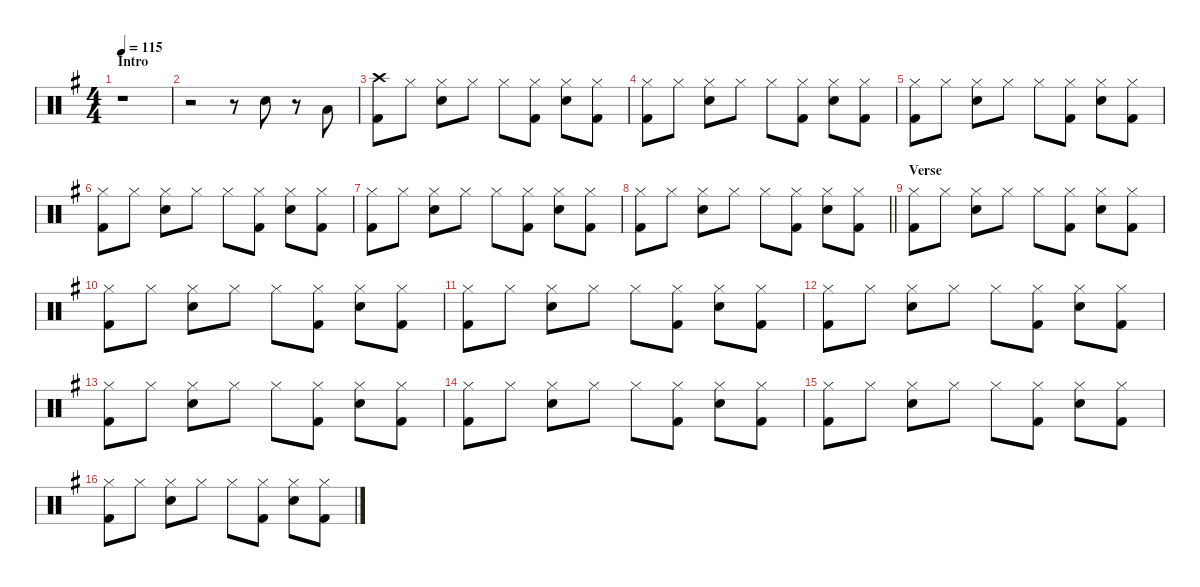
\defaultSystemsLayout 8
\hideDynamics
\bracketExtendMode nobrackets
\singleTrackTrackNamePolicy hidden
\multiTrackTrackNamePolicy hidden
\otherSystemsTrackNameOrientation horizontal
\track ("Drums" "drm.") {defaultSystemsLayout 4 instrument percussion}
\staff {score}
\articulation defaults
\ts (4 4)
\beaming (8 2 2 2 2)
\section ("" "Intro")
\tempo 115
\clef neutral
\ks g
r.1{dy f beam Down} |
r.2{beam Down} r.8{beam Down} "Snare (hit) 2"{acc forcenatural}.8{beam Down} r.8{beam Down} "Low Tom (hit)"{acc forcenatural}.8{beam Up} |
("Crash high (hit)"{acc forcenatural} "Kick (hit) 2"{acc forcenatural}).8{beam Down} "Hi-Hat (closed)"{acc forcenatural}.8{beam Down} ("Hi-Hat (closed)"{acc forcenatural} "Snare (hit) 2"{acc forcenatural}).8{beam Down} "Hi-Hat (closed)"{acc forcenatural}.8{beam Down} "Hi-Hat (closed)"{acc forcenatural}.8{beam Down} ("Hi-Hat (closed)"{acc forcenatural} "Kick (hit) 2"{acc forcenatural}).8{beam Down} ("Hi-Hat (closed)"{acc forcenatural} "Snare (hit) 2"{acc forcenatural}).8{beam Down} ("Hi-Hat (closed)"{acc forcenatural} "Kick (hit) 2"{acc forcenatural}).8{beam Down} |
("Hi-Hat (closed)"{acc forcenatural} "Kick (hit) 2"{acc forcenatural}).8{beam Down} "Hi-Hat (closed)"{acc forcenatural}.8{beam Down} ("Hi-Hat (closed)"{acc forcenatural} "Snare (hit) 2"{acc forcenatural}).8{beam Down} "Hi-Hat (closed)"{acc forcenatural}.8{beam Down} "Hi-Hat (closed)"{acc forcenatural}.8{beam Down} ("Hi-Hat (closed)"{acc forcenatural} "Kick (hit) 2"{acc forcenatural}).8{beam Down} ("Hi-Hat (closed)"{acc forcenatural} "Snare (hit) 2"{acc forcenatural}).8{beam Down} ("Hi-Hat (closed)"{acc forcenatural} "Kick (hit) 2"{acc forcenatural}).8{beam Down} |
("Hi-Hat (closed)"{acc forcenatural} "Kick (hit) 2"{acc forcenatural}).8{beam Down} "Hi-Hat (closed)"{acc forcenatural}.8{beam Down} ("Hi-Hat (closed)"{acc forcenatural} "Snare (hit) 2"{acc forcenatural}).8{beam Down} "Hi-Hat (closed)"{acc forcenatural}.8{beam Down} "Hi-Hat (closed)"{acc forcenatural}.8{beam Down} ("Hi-Hat (closed)"{acc forcenatural} "Kick (hit) 2"{acc forcenatural}).8{beam Down} ("Hi-Hat (closed)"{acc forcenatural} "Snare (hit) 2"{acc forcenatural}).8{beam Down} ("Hi-Hat (closed)"{acc forcenatural} "Kick (hit) 2"{acc forcenatural}).8{beam Down} |
("Hi-Hat (closed)"{acc forcenatural} "Kick (hit) 2"{acc forcenatural}).8{beam Down} "Hi-Hat (closed)"{acc forcenatural}.8{beam Down} ("Hi-Hat (closed)"{acc forcenatural} "Snare (hit) 2"{acc forcenatural}).8{beam Down} "Hi-Hat (closed)"{acc forcenatural}.8{beam Down} "Hi-Hat (closed)"{acc forcenatural}.8{beam Down} ("Hi-Hat (closed)"{acc forcenatural} "Kick (hit) 2"{acc forcenatural}).8{beam Down} ("Hi-Hat (closed)"{acc forcenatural} "Snare (hit) 2"{acc forcenatural}).8{beam Down} ("Hi-Hat (closed)"{acc forcenatural} "Kick (hit) 2"{acc forcenatural}).8{beam Down} |
("Hi-Hat (closed)"{acc forcenatural} "Kick (hit) 2"{acc forcenatural}).8{beam Down} "Hi-Hat (closed)"{acc forcenatural}.8{beam Down} ("Hi-Hat (closed)"{acc forcenatural} "Snare (hit) 2"{acc forcenatural}).8{beam Down} "Hi-Hat (closed)"{acc forcenatural}.8{beam Down} "Hi-Hat (closed)"{acc forcenatural}.8{beam Down} ("Hi-Hat (closed)"{acc forcenatural} "Kick (hit) 2"{acc forcenatural}).8{beam Down} ("Hi-Hat (closed)"{acc forcenatural} "Snare (hit) 2"{acc forcenatural}).8{beam Down} ("Hi-Hat (closed)"{acc forcenatural} "Kick (hit) 2"{acc forcenatural}).8{beam Down} |
\barLineRight lightlight
("Hi-Hat (closed)"{acc forcenatural} "Kick (hit) 2"{acc forcenatural}).8{beam Down} "Hi-Hat (closed)"{acc forcenatural}.8{beam Down} ("Hi-Hat (closed)"{acc forcenatural} "Snare (hit) 2"{acc forcenatural}).8{beam Down} "Hi-Hat (closed)"{acc forcenatural}.8{beam Down} "Hi-Hat (closed)"{acc forcenatural}.8{beam Down} ("Hi-Hat (closed)"{acc forcenatural} "Kick (hit) 2"{acc forcenatural}).8{beam Down} ("Hi-Hat (closed)"{acc forcenatural} "Snare (hit) 2"{acc forcenatural}).8{beam Down} ("Hi-Hat (closed)"{acc forcenatural} "Kick (hit) 2"{acc forcenatural}).8{beam Down} |
\section ("" "Verse")
("Hi-Hat (closed)"{acc forcenatural} "Kick (hit) 2"{acc forcenatural}).8{beam Down} "Hi-Hat (closed)"{acc forcenatural}.8{beam Down} ("Hi-Hat (closed)"{acc forcenatural} "Snare (hit) 2"{acc forcenatural}).8{beam Down} "Hi-Hat (closed)"{acc forcenatural}.8{beam Down} "Hi-Hat (closed)"{acc forcenatural}.8{beam Down} ("Hi-Hat (closed)"{acc forcenatural} "Kick (hit) 2"{acc forcenatural}).8{beam Down} ("Hi-Hat (closed)"{acc forcenatural} "Snare (hit) 2"{acc forcenatural}).8{beam Down} ("Hi-Hat (closed)"{acc forcenatural} "Kick (hit) 2"{acc forcenatural}).8{beam Down} |
("Hi-Hat (closed)"{acc forcenatural} "Kick (hit) 2"{acc forcenatural}).8{beam Down} "Hi-Hat (closed)"{acc forcenatural}.8{beam Down} ("Hi-Hat (closed)"{acc forcenatural} "Snare (hit) 2"{acc forcenatural}).8{beam Down} "Hi-Hat (closed)"{acc forcenatural}.8{beam Down} "Hi-Hat (closed)"{acc forcenatural}.8{beam Down} ("Hi-Hat (closed)"{acc forcenatural} "Kick (hit) 2"{acc forcenatural}).8{beam Down} ("Hi-Hat (closed)"{acc forcenatural} "Snare (hit) 2"{acc forcenatural}).8{beam Down} ("Hi-Hat (closed)"{acc forcenatural} "Kick (hit) 2"{acc forcenatural}).8{beam Down} |
("Hi-Hat (closed)"{acc forcenatural} "Kick (hit) 2"{acc forcenatural}).8{beam Down} "Hi-Hat (closed)"{acc forcenatural}.8{beam Down} ("Hi-Hat (closed)"{acc forcenatural} "Snare (hit) 2"{acc forcenatural}).8{beam Down} "Hi-Hat (closed)"{acc forcenatural}.8{beam Down} "Hi-Hat (closed)"{acc forcenatural}.8{beam Down} ("Hi-Hat (closed)"{acc forcenatural} "Kick (hit) 2"{acc forcenatural}).8{beam Down} ("Hi-Hat (closed)"{acc forcenatural} "Snare (hit) 2"{acc forcenatural}).8{beam Down} ("Hi-Hat (closed)"{acc forcenatural} "Kick (hit) 2"{acc forcenatural}).8{beam Down} |
("Hi-Hat (closed)"{acc forcenatural} "Kick (hit) 2"{acc forcenatural}).8{beam Down} "Hi-Hat (closed)"{acc forcenatural}.8{beam Down} ("Hi-Hat (closed)"{acc forcenatural} "Snare (hit) 2"{acc forcenatural}).8{beam Down} "Hi-Hat (closed)"{acc forcenatural}.8{beam Down} "Hi-Hat (closed)"{acc forcenatural}.8{beam Down} ("Hi-Hat (closed)"{acc forcenatural} "Kick (hit) 2"{acc forcenatural}).8{beam Down} ("Hi-Hat (closed)"{acc forcenatural} "Snare (hit) 2"{acc forcenatural}).8{beam Down} ("Hi-Hat (closed)"{acc forcenatural} "Kick (hit) 2"{acc forcenatural}).8{beam Down} |
("Hi-Hat (closed)"{acc forcenatural} "Kick (hit) 2"{acc forcenatural}).8{beam Down} "Hi-Hat (closed)"{acc forcenatural}.8{beam Down} ("Hi-Hat (closed)"{acc forcenatural} "Snare (hit) 2"{acc forcenatural}).8{beam Down} "Hi-Hat (closed)"{acc forcenatural}.8{beam Down} "Hi-Hat (closed)"{acc forcenatural}.8{beam Down} ("Hi-Hat (closed)"{acc forcenatural} "Kick (hit) 2"{acc forcenatural}).8{beam Down} ("Hi-Hat (closed)"{acc forcenatural} "Snare (hit) 2"{acc forcenatural}).8{beam Down} ("Hi-Hat (closed)"{acc forcenatural} "Kick (hit) 2"{acc forcenatural}).8{beam Down} |
("Hi-Hat (closed)"{acc forcenatural} "Kick (hit) 2"{acc forcenatural}).8{beam Down} "Hi-Hat (closed)"{acc forcenatural}.8{beam Down} ("Hi-Hat (closed)"{acc forcenatural} "Snare (hit) 2"{acc forcenatural}).8{beam Down} "Hi-Hat (closed)"{acc forcenatural}.8{beam Down} "Hi-Hat (closed)"{acc forcenatural}.8{beam Down} ("Hi-Hat (closed)"{acc forcenatural} "Kick (hit) 2"{acc forcenatural}).8{beam Down} ("Hi-Hat (closed)"{acc forcenatural} "Snare (hit) 2"{acc forcenatural}).8{beam Down} ("Hi-Hat (closed)"{acc forcenatural} "Kick (hit) 2"{acc forcenatural}).8{beam Down} |
("Hi-Hat (closed)"{acc forcenatural} "Kick (hit) 2"{acc forcenatural}).8{beam Down} "Hi-Hat (closed)"{acc forcenatural}.8{beam Down} ("Hi-Hat (closed)"{acc forcenatural} "Snare (hit) 2"{acc forcenatural}).8{beam Down} "Hi-Hat (closed)"{acc forcenatural}.8{beam Down} "Hi-Hat (closed)"{acc forcenatural}.8{beam Down} ("Hi-Hat (closed)"{acc forcenatural} "Kick (hit) 2"{acc forcenatural}).8{beam Down} ("Hi-Hat (closed)"{acc forcenatural} "Snare (hit) 2"{acc forcenatural}).8{beam Down} ("Hi-Hat (closed)"{acc forcenatural} "Kick (hit) 2"{acc forcenatural}).8{beam Down} |
("Hi-Hat (closed)"{acc forcenatural} "Kick (hit) 2"{acc forcenatural}).8{beam Down} "Hi-Hat (closed)"{acc forcenatural}.8{beam Down} ("Hi-Hat (closed)"{acc forcenatural} "Snare (hit) 2"{acc forcenatural}).8{beam Down} "Hi-Hat (closed)"{acc forcenatural}.8{beam Down} "Hi-Hat (closed)"{acc forcenatural}.8{beam Down} ("Hi-Hat (closed)"{acc forcenatural} "Kick (hit) 2"{acc forcenatural}).8{beam Down} ("Hi-Hat (closed)"{acc forcenatural} "Snare (hit) 2"{acc forcenatural}).8{beam Down} ("Hi-Hat (closed)"{acc forcenatural} "Kick (hit) 2"{acc forcenatural}).8{beam Down}
